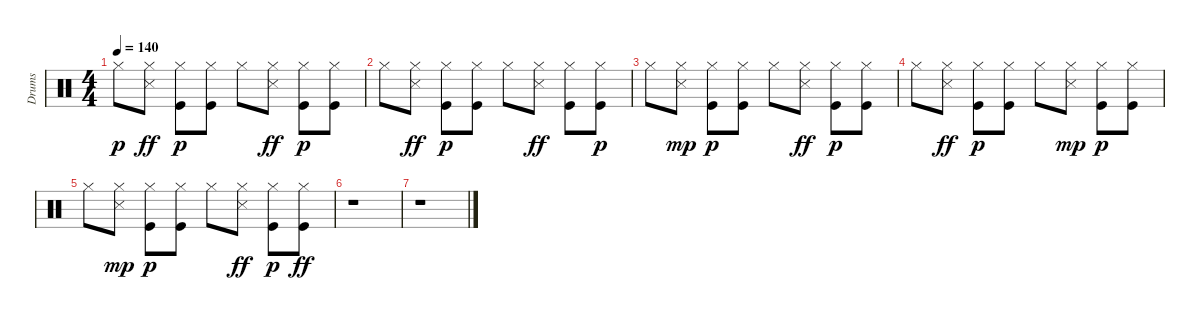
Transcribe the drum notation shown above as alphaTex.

\track ("Drums" "Drums") {instrument percussion}
\staff {score}
\articulation defaults
\ts (4 4)
\tempo 140
\clef neutral
\ks c "Hi-Hat (closed)".8{dy p}
("Hi-Hat (closed)" "Snare (side stick) 3").8{dy ff} ("Hi-Hat (closed)" "Kick (hit)").8{dy p} ("Hi-Hat (closed)" "Kick (hit)").8 "Hi-Hat (closed)".8 ("Hi-Hat (closed)" "Snare (side stick) 3").8{dy ff} ("Hi-Hat (closed)" "Kick (hit)").8{dy p} ("Hi-Hat (closed)" "Kick (hit)").8 |
"Hi-Hat (closed)".8 ("Hi-Hat (closed)" "Snare (side stick) 3").8{dy ff} ("Hi-Hat (closed)" "Kick (hit)").8{dy p} ("Kick (hit)" "Hi-Hat (closed)").8 "Hi-Hat (closed)".8 ("Hi-Hat (closed)" "Snare (side stick) 3").8{dy ff} ("Hi-Hat (closed)" "Kick (hit)").8 ("Hi-Hat (closed)" "Kick (hit)").8{dy p} |
"Hi-Hat (closed)".8 ("Snare (side stick) 3" "Hi-Hat (closed)").8{dy mp} ("Kick (hit)" "Hi-Hat (closed)").8{dy p} ("Kick (hit)" "Hi-Hat (closed)").8 "Hi-Hat (closed)".8 ("Hi-Hat (closed)" "Snare (side stick) 3").8{dy ff} ("Hi-Hat (closed)" "Kick (hit)").8{dy p} ("Hi-Hat (closed)" "Kick (hit)").8 |
"Hi-Hat (closed)".8 ("Hi-Hat (closed)" "Snare (side stick) 3").8{dy ff} ("Hi-Hat (closed)" "Kick (hit)").8{dy p} ("Hi-Hat (closed)" "Kick (hit)").8 "Hi-Hat (closed)".8 ("Snare (side stick) 3" "Hi-Hat (closed)").8{dy mp} ("Kick (hit)" "Hi-Hat (closed)").8{dy p} ("Kick (hit)" "Hi-Hat (closed)").8 |
"Hi-Hat (closed)".8 ("Hi-Hat (closed)" "Snare (side stick) 3").8{dy mp} ("Hi-Hat (closed)" "Kick (hit)").8{dy p} ("Hi-Hat (closed)" "Kick (hit)").8 "Hi-Hat (closed)".8 ("Hi-Hat (closed)" "Snare (side stick) 3").8{dy ff} ("Hi-Hat (closed)" "Kick (hit)").8{dy p} ("Hi-Hat (closed)" "Kick (hit)").8{dy ff} |
r.1 |
r.1
